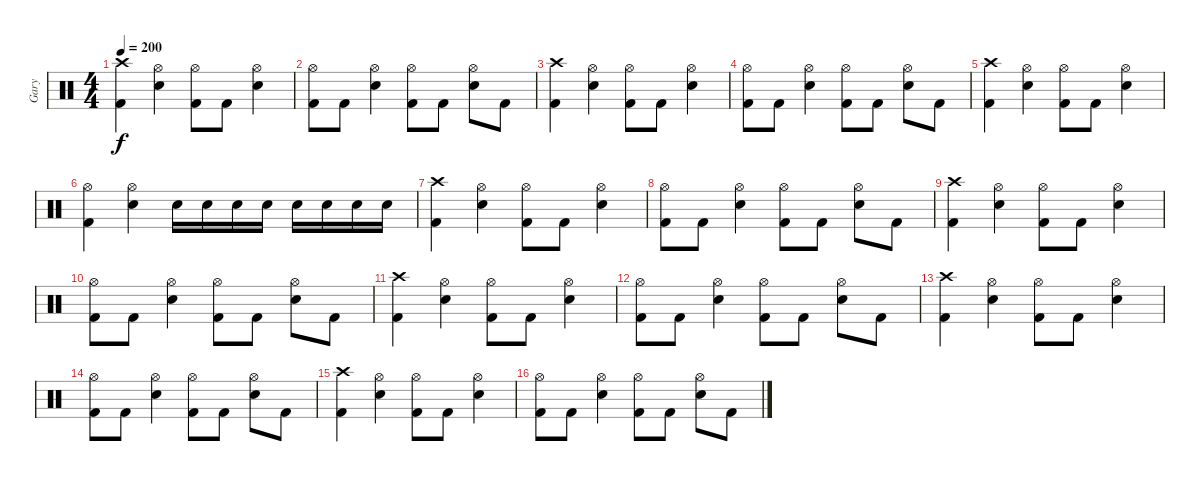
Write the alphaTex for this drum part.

\track ("Gary" "Gary") {instrument percussion}
\staff {score}
\articulation defaults
\ts (4 4)
\tempo 200
\clef neutral
\ks c
("Crash high (hit)" "Kick (hit) 2").4{dy f} ("Hi-Hat (open)" "Electric Snare (hit)").4 ("Hi-Hat (open)" "Kick (hit) 2").8 "Kick (hit) 2".8 ("Hi-Hat (open)" "Electric Snare (hit)").4 |
("Hi-Hat (open)" "Kick (hit) 2").8 "Kick (hit) 2".8 ("Hi-Hat (open)" "Electric Snare (hit)").4 ("Hi-Hat (open)" "Kick (hit) 2").8 "Kick (hit) 2".8 ("Hi-Hat (open)" "Electric Snare (hit)").8 "Kick (hit) 2".8 |
("Crash high (hit)" "Kick (hit) 2").4 ("Hi-Hat (open)" "Electric Snare (hit)").4 ("Hi-Hat (open)" "Kick (hit) 2").8 "Kick (hit) 2".8 ("Hi-Hat (open)" "Electric Snare (hit)").4 |
("Hi-Hat (open)" "Kick (hit) 2").8 "Kick (hit) 2".8 ("Hi-Hat (open)" "Electric Snare (hit)").4 ("Hi-Hat (open)" "Kick (hit) 2").8 "Kick (hit) 2".8 ("Hi-Hat (open)" "Electric Snare (hit)").8 "Kick (hit) 2".8 |
("Crash high (hit)" "Kick (hit) 2").4 ("Hi-Hat (open)" "Electric Snare (hit)").4 ("Hi-Hat (open)" "Kick (hit) 2").8 "Kick (hit) 2".8 ("Hi-Hat (open)" "Electric Snare (hit)").4 |
("Hi-Hat (open)" "Kick (hit) 2").4 ("Hi-Hat (open)" "Electric Snare (hit)").4 "Electric Snare (hit)".16 "Electric Snare (hit)".16 "Electric Snare (hit)".16 "Electric Snare (hit)".16 "Electric Snare (hit)".16 "Electric Snare (hit)".16 "Electric Snare (hit)".16 "Electric Snare (hit)".16 |
("Crash high (hit)" "Kick (hit) 2").4 ("Hi-Hat (open)" "Electric Snare (hit)").4 ("Hi-Hat (open)" "Kick (hit) 2").8 "Kick (hit) 2".8 ("Hi-Hat (open)" "Electric Snare (hit)").4 |
("Hi-Hat (open)" "Kick (hit) 2").8 "Kick (hit) 2".8 ("Hi-Hat (open)" "Electric Snare (hit)").4 ("Hi-Hat (open)" "Kick (hit) 2").8 "Kick (hit) 2".8 ("Hi-Hat (open)" "Electric Snare (hit)").8 "Kick (hit) 2".8 |
("Crash high (hit)" "Kick (hit) 2").4 ("Hi-Hat (open)" "Electric Snare (hit)").4 ("Hi-Hat (open)" "Kick (hit) 2").8 "Kick (hit) 2".8 ("Hi-Hat (open)" "Electric Snare (hit)").4 |
("Hi-Hat (open)" "Kick (hit) 2").8 "Kick (hit) 2".8 ("Hi-Hat (open)" "Electric Snare (hit)").4 ("Hi-Hat (open)" "Kick (hit) 2").8 "Kick (hit) 2".8 ("Hi-Hat (open)" "Electric Snare (hit)").8 "Kick (hit) 2".8 |
("Crash high (hit)" "Kick (hit) 2").4 ("Hi-Hat (open)" "Electric Snare (hit)").4 ("Hi-Hat (open)" "Kick (hit) 2").8 "Kick (hit) 2".8 ("Hi-Hat (open)" "Electric Snare (hit)").4 |
("Hi-Hat (open)" "Kick (hit) 2").8 "Kick (hit) 2".8 ("Hi-Hat (open)" "Electric Snare (hit)").4 ("Hi-Hat (open)" "Kick (hit) 2").8 "Kick (hit) 2".8 ("Hi-Hat (open)" "Electric Snare (hit)").8 "Kick (hit) 2".8 |
("Crash high (hit)" "Kick (hit) 2").4 ("Hi-Hat (open)" "Electric Snare (hit)").4 ("Hi-Hat (open)" "Kick (hit) 2").8 "Kick (hit) 2".8 ("Hi-Hat (open)" "Electric Snare (hit)").4 |
("Hi-Hat (open)" "Kick (hit) 2").8 "Kick (hit) 2".8 ("Hi-Hat (open)" "Electric Snare (hit)").4 ("Hi-Hat (open)" "Kick (hit) 2").8 "Kick (hit) 2".8 ("Hi-Hat (open)" "Electric Snare (hit)").8 "Kick (hit) 2".8 |
("Crash high (hit)" "Kick (hit) 2").4 ("Hi-Hat (open)" "Electric Snare (hit)").4 ("Hi-Hat (open)" "Kick (hit) 2").8 "Kick (hit) 2".8 ("Hi-Hat (open)" "Electric Snare (hit)").4 |
("Hi-Hat (open)" "Kick (hit) 2").8 "Kick (hit) 2".8 ("Hi-Hat (open)" "Electric Snare (hit)").4 ("Hi-Hat (open)" "Kick (hit) 2").8 "Kick (hit) 2".8 ("Hi-Hat (open)" "Electric Snare (hit)").8 "Kick (hit) 2".8
